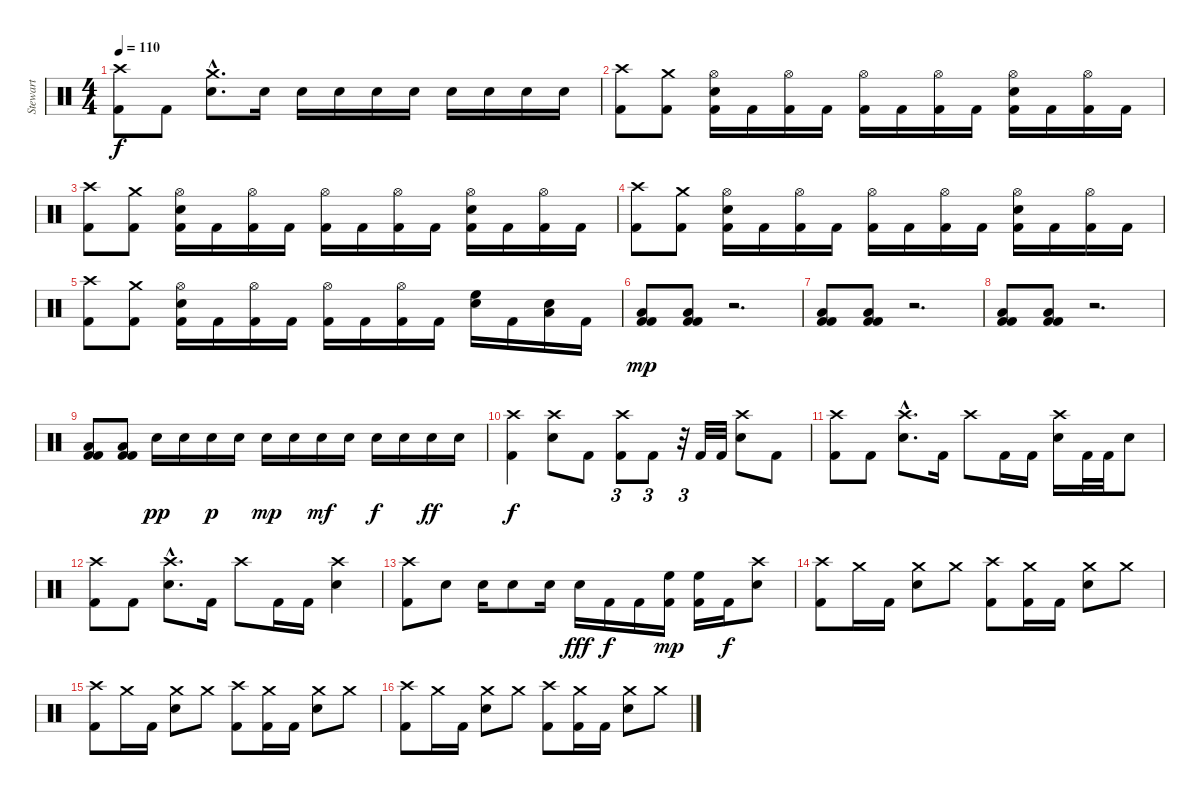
\track ("Stewart" "Stewart") {instrument percussion}
\staff {score}
\articulation defaults
\ts (4 4)
\tempo 110
\clef neutral
\ks c
("Kick (hit) 2" "Crash high (hit)").8{dy f} "Kick (hit) 2".8 ("Snare (hit) 2"{hac} "Crash medium (hit)"{hac}).8{d} "Snare (hit) 2".16 "Snare (hit) 2".16 "Snare (hit) 2".16 "Snare (hit) 2".16 "Snare (hit) 2".16 "Snare (hit) 2".16 "Snare (hit) 2".16 "Snare (hit) 2".16 "Snare (hit) 2".16 |
("Kick (hit) 2" "Crash high (hit)").8 ("Kick (hit) 2" "Crash medium (hit)").8 ("Kick (hit) 2" "Snare (hit) 2" "Hi-Hat (open)").16 "Kick (hit) 2".16 ("Kick (hit) 2" "Hi-Hat (open)").16 "Kick (hit) 2".16 ("Kick (hit) 2" "Hi-Hat (open)").16 "Kick (hit) 2".16 ("Kick (hit) 2" "Hi-Hat (open)").16 "Kick (hit) 2".16 ("Kick (hit) 2" "Snare (hit) 2" "Hi-Hat (open)").16 "Kick (hit) 2".16 ("Kick (hit) 2" "Hi-Hat (open)").16 "Kick (hit) 2".16 |
("Kick (hit) 2" "Crash high (hit)").8 ("Kick (hit) 2" "Crash medium (hit)").8 ("Kick (hit) 2" "Snare (hit) 2" "Hi-Hat (open)").16 "Kick (hit) 2".16 ("Kick (hit) 2" "Hi-Hat (open)").16 "Kick (hit) 2".16 ("Kick (hit) 2" "Hi-Hat (open)").16 "Kick (hit) 2".16 ("Kick (hit) 2" "Hi-Hat (open)").16 "Kick (hit) 2".16 ("Kick (hit) 2" "Snare (hit) 2" "Hi-Hat (open)").16 "Kick (hit) 2".16 ("Kick (hit) 2" "Hi-Hat (open)").16 "Kick (hit) 2".16 |
("Kick (hit) 2" "Crash high (hit)").8 ("Kick (hit) 2" "Crash medium (hit)").8 ("Kick (hit) 2" "Snare (hit) 2" "Hi-Hat (open)").16 "Kick (hit) 2".16 ("Kick (hit) 2" "Hi-Hat (open)").16 "Kick (hit) 2".16 ("Kick (hit) 2" "Hi-Hat (open)").16 "Kick (hit) 2".16 ("Kick (hit) 2" "Hi-Hat (open)").16 "Kick (hit) 2".16 ("Kick (hit) 2" "Snare (hit) 2" "Hi-Hat (open)").16 "Kick (hit) 2".16 ("Kick (hit) 2" "Hi-Hat (open)").16 "Kick (hit) 2".16 |
("Kick (hit) 2" "Crash high (hit)").8 ("Kick (hit) 2" "Crash medium (hit)").8 ("Kick (hit) 2" "Snare (hit) 2" "Hi-Hat (open)").16 "Kick (hit) 2".16 ("Kick (hit) 2" "Hi-Hat (open)").16 "Kick (hit) 2".16 ("Kick (hit) 2" "Hi-Hat (open)").16 "Kick (hit) 2".16 ("Kick (hit) 2" "Hi-Hat (open)").16 "Kick (hit) 2".16 ("High Floor Tom (hit)" "Snare (hit) 2").16 "Kick (hit) 2".16 ("Low Tom (hit)" "Snare (hit) 2").16 "Kick (hit) 2".16 |
("Kick (hit) 2" "Low Tom (hit)" "Kick (hit) 2").8{dy mp} ("Kick (hit) 2" "Low Floor Tom (hit)" "Kick (hit) 2").8 r.2{d} |
("Kick (hit) 2" "Low Tom (hit)" "Kick (hit) 2").8 ("Kick (hit) 2" "Low Floor Tom (hit)" "Kick (hit) 2").8 r.2{d} |
("Kick (hit) 2" "Low Tom (hit)" "Kick (hit) 2").8 ("Kick (hit) 2" "Low Floor Tom (hit)" "Kick (hit) 2").8 r.2{d} |
("Kick (hit) 2" "Low Tom (hit)" "Kick (hit) 2").8 ("Kick (hit) 2" "Low Floor Tom (hit)" "Kick (hit) 2").8 "Snare (hit) 2".16{dy pp} "Snare (hit) 2".16 "Snare (hit) 2".16{dy p} "Snare (hit) 2".16 "Snare (hit) 2".16{dy mp} "Snare (hit) 2".16 "Snare (hit) 2".16{dy mf} "Snare (hit) 2".16 "Snare (hit) 2".16{dy f} "Snare (hit) 2".16 "Snare (hit) 2".16{dy ff} "Snare (hit) 2".16 |
("Crash high (hit)" "Kick (hit) 2").4{dy f} ("Crash high (hit)" "Snare (hit) 2").8 "Kick (hit) 2".8 ("Crash high (hit)" "Kick (hit) 2").8{tu (3 2)} "Kick (hit) 2".8{tu (3 2)} r.32{tu (3 2)} "Kick (hit) 2".32 "Kick (hit) 2".32 ("Crash high (hit)" "Snare (hit) 2").8 "Kick (hit) 2".8 |
("Crash high (hit)" "Kick (hit) 2").8 "Kick (hit) 2".8 ("Crash high (hit)"{hac} "Snare (hit) 2"{hac}).8{d} "Kick (hit) 2".16 "Crash high (hit)".8 "Kick (hit) 2".16 "Kick (hit) 2".16 ("Crash high (hit)" "Snare (hit) 2").16 "Kick (hit) 2".32 "Kick (hit) 2".32 "Snare (hit) 2".8 |
("Crash high (hit)" "Kick (hit) 2").8 "Kick (hit) 2".8 ("Crash high (hit)"{hac} "Snare (hit) 2"{hac}).8{d} "Kick (hit) 2".16 "Crash high (hit)".8 "Kick (hit) 2".16 "Kick (hit) 2".16 ("Crash high (hit)" "Snare (hit) 2").4 |
("Crash high (hit)" "Kick (hit) 2").8 "Snare (hit) 2".8 "Snare (hit) 2".16 "Snare (hit) 2".8 "Snare (hit) 2".16 "Snare (hit) 2".16{dy fff} "Kick (hit) 2".16{dy f} "Kick (hit) 2".16 ("High Floor Tom (hit)" "Kick (hit) 2").16{dy mp} ("High Floor Tom (hit)" "Kick (hit) 2").16 "Kick (hit) 2".16{dy f} ("Crash high (hit)" "Snare (hit) 2").8 |
("Crash high (hit)" "Kick (hit) 2").8 "Crash medium (hit)".16 "Kick (hit) 2".16 ("Crash medium (hit)" "Electric Snare (hit)").8 "Crash medium (hit)".8 ("Crash high (hit)" "Kick (hit) 2").8 ("Crash medium (hit)" "Kick (hit) 2").16 "Kick (hit) 2".16 ("Crash medium (hit)" "Electric Snare (hit)").8 "Crash medium (hit)".8 |
("Crash high (hit)" "Kick (hit) 2").8 "Crash medium (hit)".16 "Kick (hit) 2".16 ("Crash medium (hit)" "Electric Snare (hit)").8 "Crash medium (hit)".8 ("Crash high (hit)" "Kick (hit) 2").8 ("Crash medium (hit)" "Kick (hit) 2").16 "Kick (hit) 2".16 ("Crash medium (hit)" "Electric Snare (hit)").8 "Crash medium (hit)".8 |
("Crash high (hit)" "Kick (hit) 2").8 "Crash medium (hit)".16 "Kick (hit) 2".16 ("Crash medium (hit)" "Electric Snare (hit)").8 "Crash medium (hit)".8 ("Crash high (hit)" "Kick (hit) 2").8 ("Crash medium (hit)" "Kick (hit) 2").16 "Kick (hit) 2".16 ("Crash medium (hit)" "Electric Snare (hit)").8 "Crash medium (hit)".8
